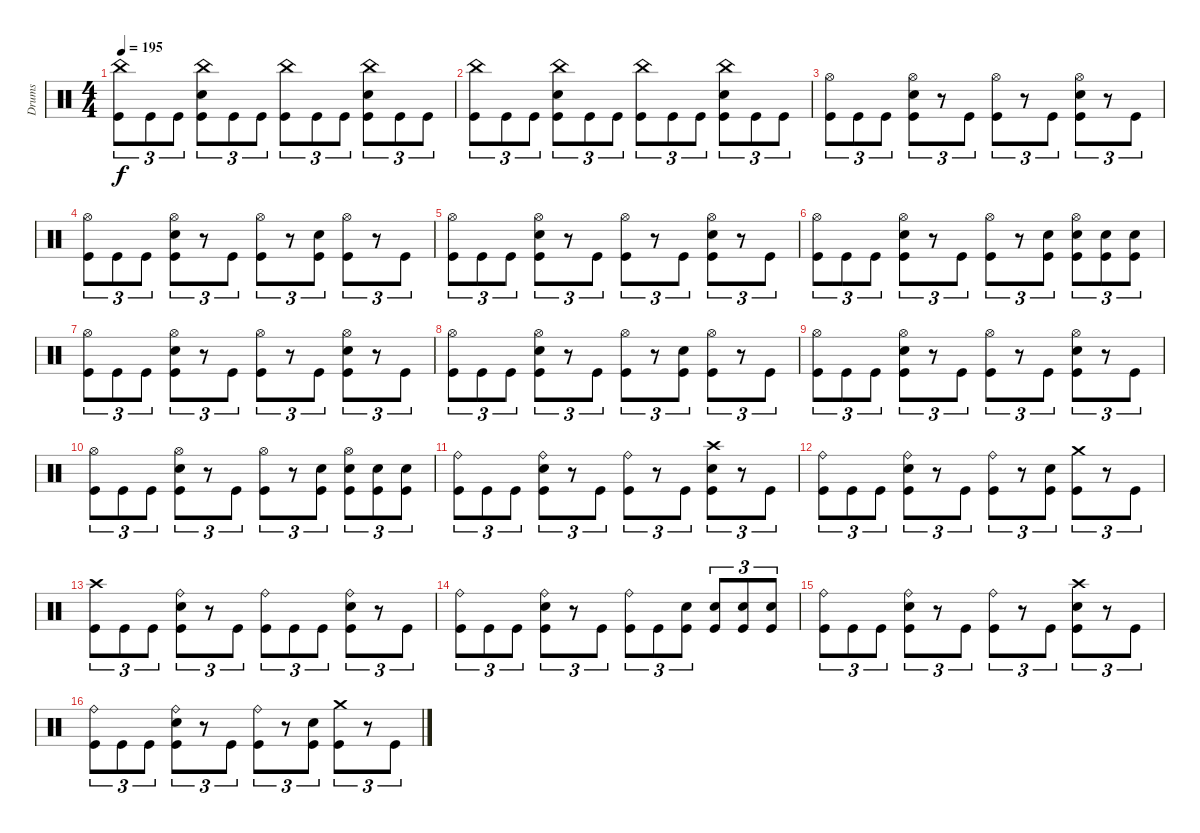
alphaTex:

\track ("Drums" "Drums") {instrument percussion}
\staff {score}
\articulation defaults
\ts (4 4)
\tempo 195
\clef neutral
\ks c
("China (hit)" "Kick (hit)").8{tu (3 2) dy f} "Kick (hit)".8{tu (3 2)} "Kick (hit)".8{tu (3 2)} ("China (hit)" "Snare (hit) 2" "Kick (hit)").8{tu (3 2)} "Kick (hit)".8{tu (3 2)} "Kick (hit)".8{tu (3 2)} ("China (hit)" "Kick (hit)").8{tu (3 2)} "Kick (hit)".8{tu (3 2)} "Kick (hit)".8{tu (3 2)} ("China (hit)" "Snare (hit) 2" "Kick (hit)").8{tu (3 2)} "Kick (hit)".8{tu (3 2)} "Kick (hit)".8{tu (3 2)} |
("China (hit)" "Kick (hit)").8{tu (3 2)} "Kick (hit)".8{tu (3 2)} "Kick (hit)".8{tu (3 2)} ("China (hit)" "Snare (hit) 2" "Kick (hit)").8{tu (3 2)} "Kick (hit)".8{tu (3 2)} "Kick (hit)".8{tu (3 2)} ("China (hit)" "Kick (hit)").8{tu (3 2)} "Kick (hit)".8{tu (3 2)} "Kick (hit)".8{tu (3 2)} ("China (hit)" "Snare (hit) 2" "Kick (hit)").8{tu (3 2)} "Kick (hit)".8{tu (3 2)} "Kick (hit)".8{tu (3 2)} |
("Hi-Hat (open)" "Kick (hit)").8{tu (3 2)} "Kick (hit)".8{tu (3 2)} "Kick (hit)".8{tu (3 2)} ("Hi-Hat (open)" "Snare (hit) 2" "Kick (hit)").8{tu (3 2)} r.8{tu (3 2)} "Kick (hit)".8{tu (3 2)} ("Hi-Hat (open)" "Kick (hit)").8{tu (3 2)} r.8{tu (3 2)} "Kick (hit)".8{tu (3 2)} ("Hi-Hat (open)" "Snare (hit) 2" "Kick (hit)").8{tu (3 2)} r.8{tu (3 2)} "Kick (hit)".8{tu (3 2)} |
("Hi-Hat (open)" "Kick (hit)").8{tu (3 2)} "Kick (hit)".8{tu (3 2)} "Kick (hit)".8{tu (3 2)} ("Hi-Hat (open)" "Snare (hit) 2" "Kick (hit)").8{tu (3 2)} r.8{tu (3 2)} "Kick (hit)".8{tu (3 2)} ("Hi-Hat (open)" "Kick (hit)").8{tu (3 2)} r.8{tu (3 2)} ("Snare (hit) 2" "Kick (hit)").8{tu (3 2)} ("Hi-Hat (open)" "Kick (hit)").8{tu (3 2)} r.8{tu (3 2)} "Kick (hit)".8{tu (3 2)} |
("Hi-Hat (open)" "Kick (hit)").8{tu (3 2)} "Kick (hit)".8{tu (3 2)} "Kick (hit)".8{tu (3 2)} ("Hi-Hat (open)" "Snare (hit) 2" "Kick (hit)").8{tu (3 2)} r.8{tu (3 2)} "Kick (hit)".8{tu (3 2)} ("Hi-Hat (open)" "Kick (hit)").8{tu (3 2)} r.8{tu (3 2)} "Kick (hit)".8{tu (3 2)} ("Hi-Hat (open)" "Snare (hit) 2" "Kick (hit)").8{tu (3 2)} r.8{tu (3 2)} "Kick (hit)".8{tu (3 2)} |
("Hi-Hat (open)" "Kick (hit)").8{tu (3 2)} "Kick (hit)".8{tu (3 2)} "Kick (hit)".8{tu (3 2)} ("Hi-Hat (open)" "Snare (hit) 2" "Kick (hit)").8{tu (3 2)} r.8{tu (3 2)} "Kick (hit)".8{tu (3 2)} ("Hi-Hat (open)" "Kick (hit)").8{tu (3 2)} r.8{tu (3 2)} ("Snare (hit) 2" "Kick (hit)").8{tu (3 2)} ("Hi-Hat (open)" "Snare (hit) 2" "Kick (hit)").8{tu (3 2)} ("Snare (hit) 2" "Kick (hit)").8{tu (3 2)} ("Snare (hit) 2" "Kick (hit)").8{tu (3 2)} |
("Hi-Hat (open)" "Kick (hit)").8{tu (3 2)} "Kick (hit)".8{tu (3 2)} "Kick (hit)".8{tu (3 2)} ("Hi-Hat (open)" "Snare (hit) 2" "Kick (hit)").8{tu (3 2)} r.8{tu (3 2)} "Kick (hit)".8{tu (3 2)} ("Hi-Hat (open)" "Kick (hit)").8{tu (3 2)} r.8{tu (3 2)} "Kick (hit)".8{tu (3 2)} ("Hi-Hat (open)" "Snare (hit) 2" "Kick (hit)").8{tu (3 2)} r.8{tu (3 2)} "Kick (hit)".8{tu (3 2)} |
("Hi-Hat (open)" "Kick (hit)").8{tu (3 2)} "Kick (hit)".8{tu (3 2)} "Kick (hit)".8{tu (3 2)} ("Hi-Hat (open)" "Snare (hit) 2" "Kick (hit)").8{tu (3 2)} r.8{tu (3 2)} "Kick (hit)".8{tu (3 2)} ("Hi-Hat (open)" "Kick (hit)").8{tu (3 2)} r.8{tu (3 2)} ("Snare (hit) 2" "Kick (hit)").8{tu (3 2)} ("Hi-Hat (open)" "Kick (hit)").8{tu (3 2)} r.8{tu (3 2)} "Kick (hit)".8{tu (3 2)} |
("Hi-Hat (open)" "Kick (hit)").8{tu (3 2)} "Kick (hit)".8{tu (3 2)} "Kick (hit)".8{tu (3 2)} ("Hi-Hat (open)" "Snare (hit) 2" "Kick (hit)").8{tu (3 2)} r.8{tu (3 2)} "Kick (hit)".8{tu (3 2)} ("Hi-Hat (open)" "Kick (hit)").8{tu (3 2)} r.8{tu (3 2)} "Kick (hit)".8{tu (3 2)} ("Hi-Hat (open)" "Snare (hit) 2" "Kick (hit)").8{tu (3 2)} r.8{tu (3 2)} "Kick (hit)".8{tu (3 2)} |
("Hi-Hat (open)" "Kick (hit)").8{tu (3 2)} "Kick (hit)".8{tu (3 2)} "Kick (hit)".8{tu (3 2)} ("Hi-Hat (open)" "Snare (hit) 2" "Kick (hit)").8{tu (3 2)} r.8{tu (3 2)} "Kick (hit)".8{tu (3 2)} ("Hi-Hat (open)" "Kick (hit)").8{tu (3 2)} r.8{tu (3 2)} ("Snare (hit) 2" "Kick (hit)").8{tu (3 2)} ("Hi-Hat (open)" "Snare (hit) 2" "Kick (hit)").8{tu (3 2)} ("Snare (hit) 2" "Kick (hit)").8{tu (3 2)} ("Snare (hit) 2" "Kick (hit)").8{tu (3 2)} |
("Ride (bell)" "Kick (hit)").8{tu (3 2)} "Kick (hit)".8{tu (3 2)} "Kick (hit)".8{tu (3 2)} ("Ride (bell)" "Snare (hit) 2" "Kick (hit)").8{tu (3 2)} r.8{tu (3 2)} "Kick (hit)".8{tu (3 2)} ("Ride (bell)" "Kick (hit)").8{tu (3 2)} r.8{tu (3 2)} "Kick (hit)".8{tu (3 2)} ("Crash high (hit)" "Snare (hit) 2" "Kick (hit)").8{tu (3 2)} r.8{tu (3 2)} "Kick (hit)".8{tu (3 2)} |
("Ride (bell)" "Kick (hit)").8{tu (3 2)} "Kick (hit)".8{tu (3 2)} "Kick (hit)".8{tu (3 2)} ("Ride (bell)" "Snare (hit) 2" "Kick (hit)").8{tu (3 2)} r.8{tu (3 2)} "Kick (hit)".8{tu (3 2)} ("Ride (bell)" "Kick (hit)").8{tu (3 2)} r.8{tu (3 2)} ("Snare (hit) 2" "Kick (hit)").8{tu (3 2)} ("Crash medium (hit)" "Kick (hit)").8{tu (3 2)} r.8{tu (3 2)} "Kick (hit)".8{tu (3 2)} |
("Crash high (hit)" "Kick (hit)").8{tu (3 2)} "Kick (hit)".8{tu (3 2)} "Kick (hit)".8{tu (3 2)} ("Ride (bell)" "Snare (hit) 2" "Kick (hit)").8{tu (3 2)} r.8{tu (3 2)} "Kick (hit)".8{tu (3 2)} ("Ride (bell)" "Kick (hit)").8{tu (3 2)} "Kick (hit)".8{tu (3 2)} "Kick (hit)".8{tu (3 2)} ("Ride (bell)" "Snare (hit) 2" "Kick (hit)").8{tu (3 2)} r.8{tu (3 2)} "Kick (hit)".8{tu (3 2)} |
("Ride (bell)" "Kick (hit)").8{tu (3 2)} "Kick (hit)".8{tu (3 2)} "Kick (hit)".8{tu (3 2)} ("Ride (bell)" "Snare (hit) 2" "Kick (hit)").8{tu (3 2)} r.8{tu (3 2)} "Kick (hit)".8{tu (3 2)} ("Ride (bell)" "Kick (hit)").8{tu (3 2)} "Kick (hit)".8{tu (3 2)} ("Snare (hit) 2" "Kick (hit)").8{tu (3 2)} ("Snare (hit) 2" "Kick (hit)").8{tu (3 2)} ("Snare (hit) 2" "Kick (hit)").8{tu (3 2)} ("Snare (hit) 2" "Kick (hit)").8{tu (3 2)} |
("Ride (bell)" "Kick (hit)").8{tu (3 2)} "Kick (hit)".8{tu (3 2)} "Kick (hit)".8{tu (3 2)} ("Ride (bell)" "Snare (hit) 2" "Kick (hit)").8{tu (3 2)} r.8{tu (3 2)} "Kick (hit)".8{tu (3 2)} ("Ride (bell)" "Kick (hit)").8{tu (3 2)} r.8{tu (3 2)} "Kick (hit)".8{tu (3 2)} ("Crash high (hit)" "Snare (hit) 2" "Kick (hit)").8{tu (3 2)} r.8{tu (3 2)} "Kick (hit)".8{tu (3 2)} |
("Ride (bell)" "Kick (hit)").8{tu (3 2)} "Kick (hit)".8{tu (3 2)} "Kick (hit)".8{tu (3 2)} ("Ride (bell)" "Snare (hit) 2" "Kick (hit)").8{tu (3 2)} r.8{tu (3 2)} "Kick (hit)".8{tu (3 2)} ("Ride (bell)" "Kick (hit)").8{tu (3 2)} r.8{tu (3 2)} ("Snare (hit) 2" "Kick (hit)").8{tu (3 2)} ("Crash medium (hit)" "Kick (hit)").8{tu (3 2)} r.8{tu (3 2)} "Kick (hit)".8{tu (3 2)}
